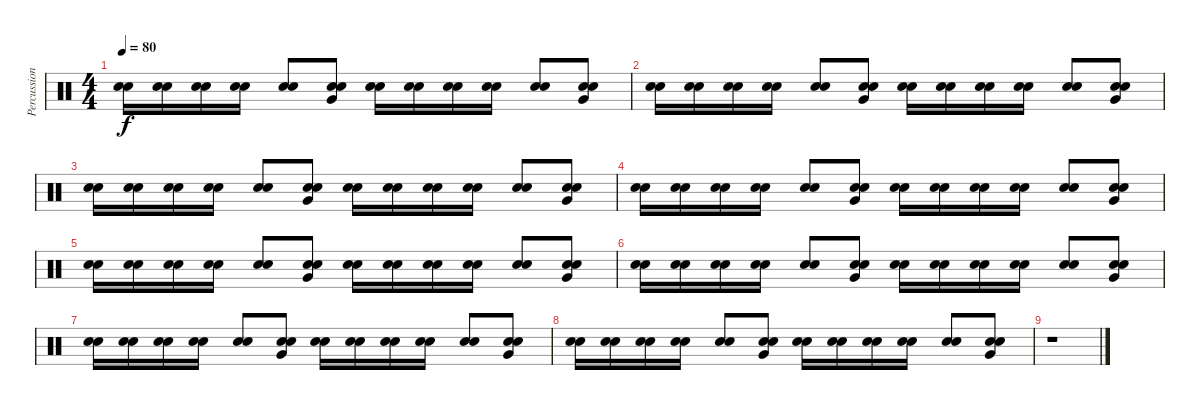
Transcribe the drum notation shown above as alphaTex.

\track ("Percussions" "Percussion") {instrument percussion}
\staff {score}
\articulation defaults
\ts (4 4)
\tempo 80
\clef neutral
\ks c
("Electric Snare (hit)" "Electric Snare (hit)").16{dy f} ("Electric Snare (hit)" "Electric Snare (hit)").16 ("Electric Snare (hit)" "Electric Snare (hit)").16 ("Electric Snare (hit)" "Electric Snare (hit)").16 ("Electric Snare (hit)" "Electric Snare (hit)").8 ("Electric Snare (hit)" "Electric Snare (hit)" "Very Low Tom (hit)").8 ("Electric Snare (hit)" "Electric Snare (hit)").16 ("Electric Snare (hit)" "Electric Snare (hit)").16 ("Electric Snare (hit)" "Electric Snare (hit)").16 ("Electric Snare (hit)" "Electric Snare (hit)").16 ("Electric Snare (hit)" "Electric Snare (hit)").8 ("Electric Snare (hit)" "Electric Snare (hit)" "Very Low Tom (hit)").8 |
("Electric Snare (hit)" "Electric Snare (hit)").16 ("Electric Snare (hit)" "Electric Snare (hit)").16 ("Electric Snare (hit)" "Electric Snare (hit)").16 ("Electric Snare (hit)" "Electric Snare (hit)").16 ("Electric Snare (hit)" "Electric Snare (hit)").8 ("Electric Snare (hit)" "Electric Snare (hit)" "Very Low Tom (hit)").8 ("Electric Snare (hit)" "Electric Snare (hit)").16 ("Electric Snare (hit)" "Electric Snare (hit)").16 ("Electric Snare (hit)" "Electric Snare (hit)").16 ("Electric Snare (hit)" "Electric Snare (hit)").16 ("Electric Snare (hit)" "Electric Snare (hit)").8 ("Electric Snare (hit)" "Electric Snare (hit)" "Very Low Tom (hit)").8 |
("Electric Snare (hit)" "Electric Snare (hit)").16 ("Electric Snare (hit)" "Electric Snare (hit)").16 ("Electric Snare (hit)" "Electric Snare (hit)").16 ("Electric Snare (hit)" "Electric Snare (hit)").16 ("Electric Snare (hit)" "Electric Snare (hit)").8 ("Electric Snare (hit)" "Electric Snare (hit)" "Very Low Tom (hit)").8 ("Electric Snare (hit)" "Electric Snare (hit)").16 ("Electric Snare (hit)" "Electric Snare (hit)").16 ("Electric Snare (hit)" "Electric Snare (hit)").16 ("Electric Snare (hit)" "Electric Snare (hit)").16 ("Electric Snare (hit)" "Electric Snare (hit)").8 ("Electric Snare (hit)" "Electric Snare (hit)" "Very Low Tom (hit)").8 |
("Electric Snare (hit)" "Electric Snare (hit)").16 ("Electric Snare (hit)" "Electric Snare (hit)").16 ("Electric Snare (hit)" "Electric Snare (hit)").16 ("Electric Snare (hit)" "Electric Snare (hit)").16 ("Electric Snare (hit)" "Electric Snare (hit)").8 ("Electric Snare (hit)" "Electric Snare (hit)" "Very Low Tom (hit)").8 ("Electric Snare (hit)" "Electric Snare (hit)").16 ("Electric Snare (hit)" "Electric Snare (hit)").16 ("Electric Snare (hit)" "Electric Snare (hit)").16 ("Electric Snare (hit)" "Electric Snare (hit)").16 ("Electric Snare (hit)" "Electric Snare (hit)").8 ("Electric Snare (hit)" "Electric Snare (hit)" "Very Low Tom (hit)").8 |
("Electric Snare (hit)" "Electric Snare (hit)").16 ("Electric Snare (hit)" "Electric Snare (hit)").16 ("Electric Snare (hit)" "Electric Snare (hit)").16 ("Electric Snare (hit)" "Electric Snare (hit)").16 ("Electric Snare (hit)" "Electric Snare (hit)").8 ("Electric Snare (hit)" "Electric Snare (hit)" "Very Low Tom (hit)").8 ("Electric Snare (hit)" "Electric Snare (hit)").16 ("Electric Snare (hit)" "Electric Snare (hit)").16 ("Electric Snare (hit)" "Electric Snare (hit)").16 ("Electric Snare (hit)" "Electric Snare (hit)").16 ("Electric Snare (hit)" "Electric Snare (hit)").8 ("Electric Snare (hit)" "Electric Snare (hit)" "Very Low Tom (hit)").8 |
("Electric Snare (hit)" "Electric Snare (hit)").16 ("Electric Snare (hit)" "Electric Snare (hit)").16 ("Electric Snare (hit)" "Electric Snare (hit)").16 ("Electric Snare (hit)" "Electric Snare (hit)").16 ("Electric Snare (hit)" "Electric Snare (hit)").8 ("Electric Snare (hit)" "Electric Snare (hit)" "Very Low Tom (hit)").8 ("Electric Snare (hit)" "Electric Snare (hit)").16 ("Electric Snare (hit)" "Electric Snare (hit)").16 ("Electric Snare (hit)" "Electric Snare (hit)").16 ("Electric Snare (hit)" "Electric Snare (hit)").16 ("Electric Snare (hit)" "Electric Snare (hit)").8 ("Electric Snare (hit)" "Electric Snare (hit)" "Very Low Tom (hit)").8 |
("Electric Snare (hit)" "Electric Snare (hit)").16 ("Electric Snare (hit)" "Electric Snare (hit)").16 ("Electric Snare (hit)" "Electric Snare (hit)").16 ("Electric Snare (hit)" "Electric Snare (hit)").16 ("Electric Snare (hit)" "Electric Snare (hit)").8 ("Electric Snare (hit)" "Electric Snare (hit)" "Very Low Tom (hit)").8 ("Electric Snare (hit)" "Electric Snare (hit)").16 ("Electric Snare (hit)" "Electric Snare (hit)").16 ("Electric Snare (hit)" "Electric Snare (hit)").16 ("Electric Snare (hit)" "Electric Snare (hit)").16 ("Electric Snare (hit)" "Electric Snare (hit)").8 ("Electric Snare (hit)" "Electric Snare (hit)" "Very Low Tom (hit)").8 |
("Electric Snare (hit)" "Electric Snare (hit)").16 ("Electric Snare (hit)" "Electric Snare (hit)").16 ("Electric Snare (hit)" "Electric Snare (hit)").16 ("Electric Snare (hit)" "Electric Snare (hit)").16 ("Electric Snare (hit)" "Electric Snare (hit)").8 ("Electric Snare (hit)" "Electric Snare (hit)" "Very Low Tom (hit)").8 ("Electric Snare (hit)" "Electric Snare (hit)").16 ("Electric Snare (hit)" "Electric Snare (hit)").16 ("Electric Snare (hit)" "Electric Snare (hit)").16 ("Electric Snare (hit)" "Electric Snare (hit)").16 ("Electric Snare (hit)" "Electric Snare (hit)").8 ("Electric Snare (hit)" "Electric Snare (hit)" "Very Low Tom (hit)").8 |
r.1
